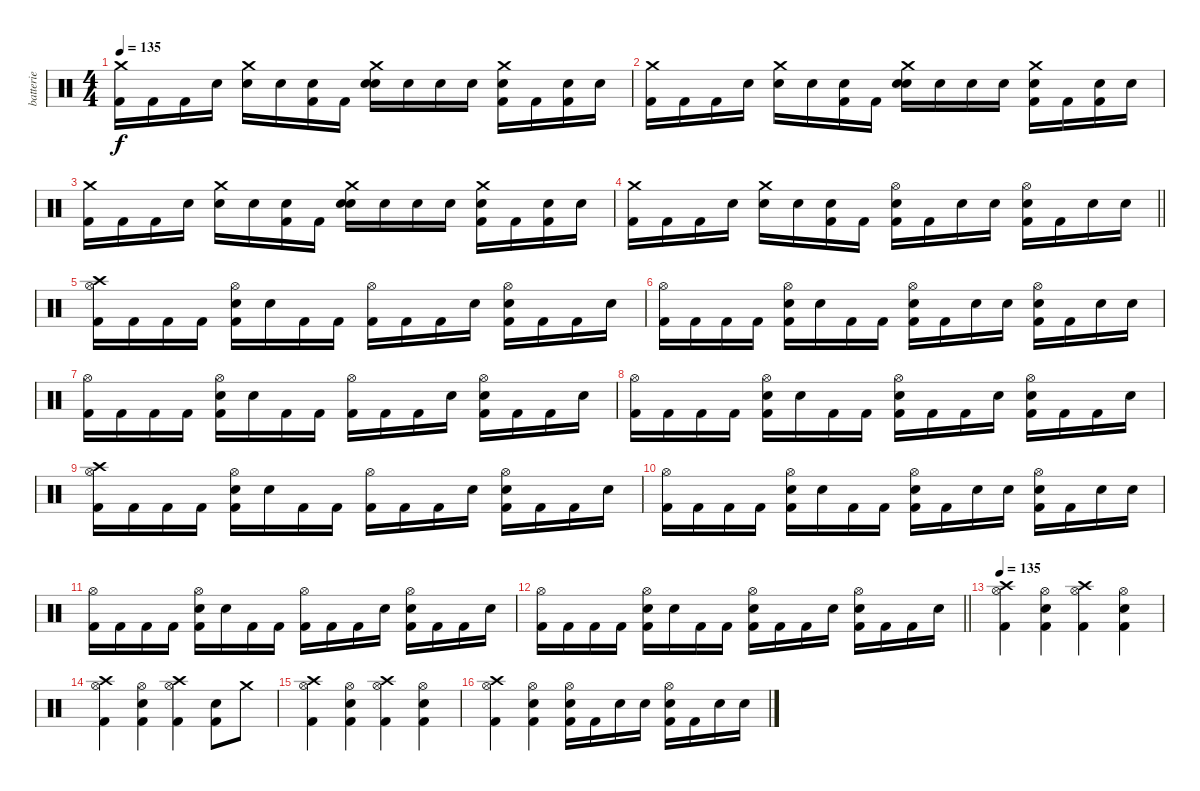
\track ("batterie" "batterie") {instrument percussion}
\staff {score}
\articulation defaults
\ts (4 4)
\tempo 135
\clef neutral
\ks c
("Crash medium (hit)" "Kick (hit) 2").16{dy f} "Kick (hit) 2".16 "Kick (hit) 2".16 "Snare (hit)".16 ("Crash medium (hit)" "Snare (hit)").16 "Snare (hit)".16 ("Snare (hit)" "Kick (hit) 2").16 "Kick (hit) 2".16 ("Snare (hit) 2" "Crash medium (hit)" "Snare (hit)").16 "Snare (hit)".16 "Snare (hit)".16 "Snare (hit)".16 ("Snare (hit)" "Crash medium (hit)" "Kick (hit) 2").16 "Kick (hit) 2".16 ("Snare (hit)" "Kick (hit) 2").16 "Snare (hit)".16 |
("Crash medium (hit)" "Kick (hit) 2").16 "Kick (hit) 2".16 "Kick (hit) 2".16 "Snare (hit)".16 ("Crash medium (hit)" "Snare (hit)").16 "Snare (hit)".16 ("Snare (hit)" "Kick (hit) 2").16 "Kick (hit) 2".16 ("Snare (hit) 2" "Crash medium (hit)" "Snare (hit)").16 "Snare (hit)".16 "Snare (hit)".16 "Snare (hit)".16 ("Snare (hit)" "Crash medium (hit)" "Kick (hit) 2").16 "Kick (hit) 2".16 ("Snare (hit)" "Kick (hit) 2").16 "Snare (hit)".16 |
("Crash medium (hit)" "Kick (hit) 2").16 "Kick (hit) 2".16 "Kick (hit) 2".16 "Snare (hit)".16 ("Crash medium (hit)" "Snare (hit)").16 "Snare (hit)".16 ("Snare (hit)" "Kick (hit) 2").16 "Kick (hit) 2".16 ("Snare (hit) 2" "Crash medium (hit)" "Snare (hit)").16 "Snare (hit)".16 "Snare (hit)".16 "Snare (hit)".16 ("Snare (hit)" "Crash medium (hit)" "Kick (hit) 2").16 "Kick (hit) 2".16 ("Snare (hit)" "Kick (hit) 2").16 "Snare (hit)".16 |
\barLineRight lightlight
("Crash medium (hit)" "Kick (hit) 2").16 "Kick (hit) 2".16 "Kick (hit) 2".16 "Snare (hit)".16 ("Crash medium (hit)" "Snare (hit)").16 "Snare (hit)".16 ("Snare (hit)" "Kick (hit) 2").16 "Kick (hit) 2".16 ("Snare (hit)" "Hi-Hat (open)" "Kick (hit) 2").16 "Kick (hit) 2".16 "Snare (hit)".16 "Snare (hit)".16 ("Snare (hit) 2" "Hi-Hat (open)" "Kick (hit) 2").16 "Kick (hit) 2".16 "Snare (hit)".16 "Snare (hit)".16 |
\section ("" "")
("Crash high (hit)" "Hi-Hat (open)" "Kick (hit) 2").16 "Kick (hit) 2".16 "Kick (hit) 2".16 "Kick (hit) 2".16 ("Snare (hit) 2" "Hi-Hat (open)" "Kick (hit) 2").16 "Snare (hit)".16 "Kick (hit) 2".16 "Kick (hit) 2".16 ("Hi-Hat (open)" "Kick (hit) 2").16 "Kick (hit) 2".16 "Kick (hit) 2".16 "Snare (hit)".16 ("Snare (hit) 2" "Hi-Hat (open)" "Kick (hit) 2").16 "Kick (hit) 2".16 "Kick (hit) 2".16 "Snare (hit)".16 |
("Hi-Hat (open)" "Kick (hit) 2").16 "Kick (hit) 2".16 "Kick (hit) 2".16 "Kick (hit) 2".16 ("Snare (hit) 2" "Hi-Hat (open)" "Kick (hit) 2").16 "Snare (hit)".16 "Kick (hit) 2".16 "Kick (hit) 2".16 ("Snare (hit)" "Hi-Hat (open)" "Kick (hit) 2").16 "Kick (hit) 2".16 "Snare (hit)".16 "Snare (hit)".16 ("Snare (hit) 2" "Hi-Hat (open)" "Kick (hit) 2").16 "Kick (hit) 2".16 "Snare (hit)".16 "Snare (hit)".16 |
("Hi-Hat (open)" "Kick (hit) 2").16 "Kick (hit) 2".16 "Kick (hit) 2".16 "Kick (hit) 2".16 ("Snare (hit) 2" "Hi-Hat (open)" "Kick (hit) 2").16 "Snare (hit)".16 "Kick (hit) 2".16 "Kick (hit) 2".16 ("Hi-Hat (open)" "Kick (hit) 2").16 "Kick (hit) 2".16 "Kick (hit) 2".16 "Snare (hit)".16 ("Snare (hit) 2" "Hi-Hat (open)" "Kick (hit) 2").16 "Kick (hit) 2".16 "Kick (hit) 2".16 "Snare (hit)".16 |
("Hi-Hat (open)" "Kick (hit) 2").16 "Kick (hit) 2".16 "Kick (hit) 2".16 "Kick (hit) 2".16 ("Snare (hit) 2" "Hi-Hat (open)" "Kick (hit) 2").16 "Snare (hit)".16 "Kick (hit) 2".16 "Kick (hit) 2".16 ("Snare (hit)" "Hi-Hat (open)" "Kick (hit) 2").16 "Kick (hit) 2".16 "Kick (hit) 2".16 "Snare (hit)".16 ("Snare (hit) 2" "Hi-Hat (open)" "Kick (hit) 2").16 "Kick (hit) 2".16 "Kick (hit) 2".16 "Snare (hit)".16 |
("Crash high (hit)" "Hi-Hat (open)" "Kick (hit) 2").16 "Kick (hit) 2".16 "Kick (hit) 2".16 "Kick (hit) 2".16 ("Snare (hit) 2" "Hi-Hat (open)" "Kick (hit) 2").16 "Snare (hit)".16 "Kick (hit) 2".16 "Kick (hit) 2".16 ("Hi-Hat (open)" "Kick (hit) 2").16 "Kick (hit) 2".16 "Kick (hit) 2".16 "Snare (hit)".16 ("Snare (hit) 2" "Hi-Hat (open)" "Kick (hit) 2").16 "Kick (hit) 2".16 "Kick (hit) 2".16 "Snare (hit)".16 |
("Hi-Hat (open)" "Kick (hit) 2").16 "Kick (hit) 2".16 "Kick (hit) 2".16 "Kick (hit) 2".16 ("Snare (hit) 2" "Hi-Hat (open)" "Kick (hit) 2").16 "Snare (hit)".16 "Kick (hit) 2".16 "Kick (hit) 2".16 ("Snare (hit)" "Hi-Hat (open)" "Kick (hit) 2").16 "Kick (hit) 2".16 "Snare (hit)".16 "Snare (hit)".16 ("Snare (hit) 2" "Hi-Hat (open)" "Kick (hit) 2").16 "Kick (hit) 2".16 "Snare (hit)".16 "Snare (hit)".16 |
("Hi-Hat (open)" "Kick (hit) 2").16 "Kick (hit) 2".16 "Kick (hit) 2".16 "Kick (hit) 2".16 ("Snare (hit) 2" "Hi-Hat (open)" "Kick (hit) 2").16 "Snare (hit)".16 "Kick (hit) 2".16 "Kick (hit) 2".16 ("Hi-Hat (open)" "Kick (hit) 2").16 "Kick (hit) 2".16 "Kick (hit) 2".16 "Snare (hit)".16 ("Snare (hit) 2" "Hi-Hat (open)" "Kick (hit) 2").16 "Kick (hit) 2".16 "Kick (hit) 2".16 "Snare (hit)".16 |
\barLineRight lightlight
("Hi-Hat (open)" "Kick (hit) 2").16 "Kick (hit) 2".16 "Kick (hit) 2".16 "Kick (hit) 2".16 ("Snare (hit) 2" "Hi-Hat (open)" "Kick (hit) 2").16 "Snare (hit)".16 "Kick (hit) 2".16 "Kick (hit) 2".16 ("Snare (hit)" "Hi-Hat (open)" "Kick (hit) 2").16 "Kick (hit) 2".16 "Kick (hit) 2".16 "Snare (hit)".16 ("Snare (hit) 2" "Hi-Hat (open)" "Kick (hit) 2").16 "Kick (hit) 2".16 "Kick (hit) 2".16 "Snare (hit)".16 |
\section ("" "")
\tempo 135
("Crash high (hit)" "Hi-Hat (open)" "Kick (hit) 2").4 ("Snare (hit) 2" "Hi-Hat (open)" "Kick (hit) 2").4 ("Crash high (hit)" "Hi-Hat (open)" "Kick (hit) 2").4 ("Snare (hit) 2" "Hi-Hat (open)" "Kick (hit) 2").4 |
("Crash high (hit)" "Hi-Hat (open)" "Kick (hit) 2").4 ("Snare (hit) 2" "Hi-Hat (open)" "Kick (hit) 2").4 ("Crash high (hit)" "Hi-Hat (open)" "Kick (hit) 2").4 ("Snare (hit) 2" "Kick (hit) 2").8 "Crash medium (hit)".8 |
("Crash high (hit)" "Hi-Hat (open)" "Kick (hit) 2").4 ("Snare (hit) 2" "Hi-Hat (open)" "Kick (hit) 2").4 ("Crash high (hit)" "Hi-Hat (open)" "Kick (hit) 2").4 ("Snare (hit) 2" "Hi-Hat (open)" "Kick (hit) 2").4 |
("Crash high (hit)" "Hi-Hat (open)" "Kick (hit) 2").4 ("Snare (hit) 2" "Hi-Hat (open)" "Kick (hit) 2").4 ("Snare (hit)" "Hi-Hat (open)" "Kick (hit) 2").16 "Kick (hit) 2".16 "Snare (hit)".16 "Snare (hit)".16 ("Snare (hit) 2" "Hi-Hat (open)" "Kick (hit) 2").16 "Kick (hit) 2".16 "Snare (hit)".16 "Snare (hit)".16
